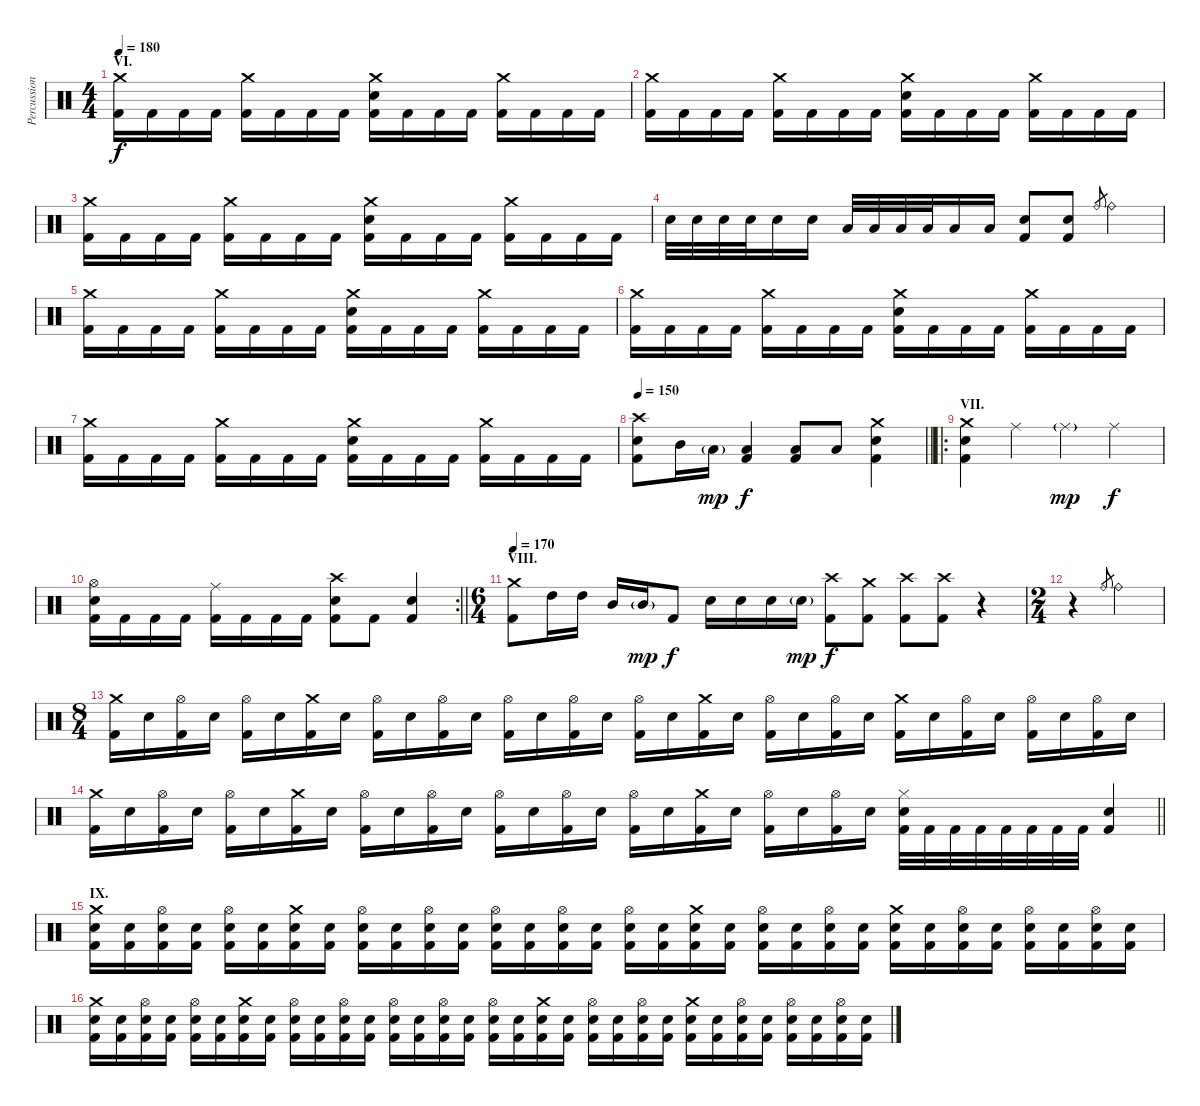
\track ("Percussion" "Percussion") {instrument percussion}
\staff {score}
\articulation defaults
\ts (4 4)
\section ("" "VI.")
\tempo 180
\clef neutral
\ks c
("Crash medium (hit)" "Kick (hit) 2").16{dy f} "Kick (hit) 2".16 "Kick (hit) 2".16 "Kick (hit) 2".16 ("Crash medium (hit)" "Kick (hit) 2").16 "Kick (hit) 2".16 "Kick (hit) 2".16 "Kick (hit) 2".16 ("Crash medium (hit)" "Electric Snare (hit)" "Kick (hit) 2").16 "Kick (hit) 2".16 "Kick (hit) 2".16 "Kick (hit) 2".16 ("Crash medium (hit)" "Kick (hit) 2").16 "Kick (hit) 2".16 "Kick (hit) 2".16 "Kick (hit) 2".16 |
("Crash medium (hit)" "Kick (hit) 2").16 "Kick (hit) 2".16 "Kick (hit) 2".16 "Kick (hit) 2".16 ("Crash medium (hit)" "Kick (hit) 2").16 "Kick (hit) 2".16 "Kick (hit) 2".16 "Kick (hit) 2".16 ("Crash medium (hit)" "Electric Snare (hit)" "Kick (hit) 2").16 "Kick (hit) 2".16 "Kick (hit) 2".16 "Kick (hit) 2".16 ("Crash medium (hit)" "Kick (hit) 2").16 "Kick (hit) 2".16 "Kick (hit) 2".16 "Kick (hit) 2".16 |
("Crash medium (hit)" "Kick (hit) 2").16 "Kick (hit) 2".16 "Kick (hit) 2".16 "Kick (hit) 2".16 ("Crash medium (hit)" "Kick (hit) 2").16 "Kick (hit) 2".16 "Kick (hit) 2".16 "Kick (hit) 2".16 ("Crash medium (hit)" "Electric Snare (hit)" "Kick (hit) 2").16 "Kick (hit) 2".16 "Kick (hit) 2".16 "Kick (hit) 2".16 ("Crash medium (hit)" "Kick (hit) 2").16 "Kick (hit) 2".16 "Kick (hit) 2".16 "Kick (hit) 2".16 |
"Electric Snare (hit)".32 "Electric Snare (hit)".32 "Electric Snare (hit)".32 "Electric Snare (hit)".32 "Electric Snare (hit)".16 "Electric Snare (hit)".16 "Low Floor Tom (hit)".32 "Low Floor Tom (hit)".32 "Low Floor Tom (hit)".32 "Low Floor Tom (hit)".32 "Low Floor Tom (hit)".16 "Low Floor Tom (hit)".16 ("Electric Snare (hit)" "Kick (hit) 2").8 ("Electric Snare (hit)" "Kick (hit) 2").8 "Ride (bell)".8{gr} "Ride (bell)".4 |
("Crash medium (hit)" "Kick (hit) 2").16 "Kick (hit) 2".16 "Kick (hit) 2".16 "Kick (hit) 2".16 ("Crash medium (hit)" "Kick (hit) 2").16 "Kick (hit) 2".16 "Kick (hit) 2".16 "Kick (hit) 2".16 ("Crash medium (hit)" "Electric Snare (hit)" "Kick (hit) 2").16 "Kick (hit) 2".16 "Kick (hit) 2".16 "Kick (hit) 2".16 ("Crash medium (hit)" "Kick (hit) 2").16 "Kick (hit) 2".16 "Kick (hit) 2".16 "Kick (hit) 2".16 |
("Crash medium (hit)" "Kick (hit) 2").16 "Kick (hit) 2".16 "Kick (hit) 2".16 "Kick (hit) 2".16 ("Crash medium (hit)" "Kick (hit) 2").16 "Kick (hit) 2".16 "Kick (hit) 2".16 "Kick (hit) 2".16 ("Crash medium (hit)" "Electric Snare (hit)" "Kick (hit) 2").16 "Kick (hit) 2".16 "Kick (hit) 2".16 "Kick (hit) 2".16 ("Crash medium (hit)" "Kick (hit) 2").16 "Kick (hit) 2".16 "Kick (hit) 2".16 "Kick (hit) 2".16 |
("Crash medium (hit)" "Kick (hit) 2").16 "Kick (hit) 2".16 "Kick (hit) 2".16 "Kick (hit) 2".16 ("Crash medium (hit)" "Kick (hit) 2").16 "Kick (hit) 2".16 "Kick (hit) 2".16 "Kick (hit) 2".16 ("Crash medium (hit)" "Electric Snare (hit)" "Kick (hit) 2").16 "Kick (hit) 2".16 "Kick (hit) 2".16 "Kick (hit) 2".16 ("Crash medium (hit)" "Kick (hit) 2").16 "Kick (hit) 2".16 "Kick (hit) 2".16 "Kick (hit) 2".16 |
\tempo 150
\barLineRight lightlight
("Crash high (hit)" "Electric Snare (hit)" "Kick (hit) 2").8 "Mid Tom (hit)".16 "Low Tom (hit)"{g}.16{dy mp} ("Low Floor Tom (hit)" "Kick (hit) 2").4{dy f} ("Low Floor Tom (hit)" "Kick (hit) 2").8 "Low Tom (hit)".8 ("Crash medium (hit)" "Electric Snare (hit)" "Kick (hit) 2").4 |
\ro
\section ("" "VII.")
("Crash medium (hit)" "Electric Snare (hit)" "Kick (hit) 2").4 "Ride (middle)".4 "Ride (middle)"{g}.4{dy mp} "Ride (middle)".4{dy f} |
\rc 2
\barLineRight lightlight
("Hi-Hat (open)" "Electric Snare (hit)" "Kick (hit) 2").16 "Kick (hit) 2".16 "Kick (hit) 2".16 "Kick (hit) 2".16 ("Ride (middle)" "Kick (hit) 2").16 "Kick (hit) 2".16 "Kick (hit) 2".16 "Kick (hit) 2".16 ("Crash high (hit)" "Electric Snare (hit)" "Kick (hit) 2").8 "Kick (hit) 2".8 ("Electric Snare (hit)" "Kick (hit) 2").4 |
\ts (6 4)
\section ("" "VIII.")
\tempo 170
("Crash medium (hit)" "Kick (hit) 2").8 "High Tom (hit)".16 "High Tom (hit)".16 "Mid Tom (hit)".16 "Mid Tom (hit)"{g}.16{dy mp} "Kick (hit) 2".8{dy f} "Electric Snare (hit)".16 "Electric Snare (hit)".16 "Electric Snare (hit)".16 "Electric Snare (hit)"{g}.16{dy mp} ("Crash high (hit)" "Kick (hit) 2").8{dy f} ("Crash medium (hit)" "Kick (hit) 2").8 ("Crash high (hit)" "Kick (hit) 2").8 ("Crash high (hit)" "Kick (hit) 2").8 r.4 |
\ts (2 4)
r.4 "Ride (bell)".8{gr} "Ride (bell)".4 |
\ts (8 4)
("Crash medium (hit)" "Kick (hit) 2").16 "Electric Snare (hit)".16 ("Hi-Hat (open)" "Kick (hit) 2").16 "Electric Snare (hit)".16 ("Hi-Hat (open)" "Kick (hit) 2").16 "Electric Snare (hit)".16 ("Crash medium (hit)" "Kick (hit) 2").16 "Electric Snare (hit)".16 ("Hi-Hat (open)" "Kick (hit) 2").16 "Electric Snare (hit)".16 ("Hi-Hat (open)" "Kick (hit) 2").16 "Electric Snare (hit)".16 ("Hi-Hat (open)" "Kick (hit) 2").16 "Electric Snare (hit)".16 ("Hi-Hat (open)" "Kick (hit) 2").16 "Electric Snare (hit)".16 ("Hi-Hat (open)" "Kick (hit) 2").16 "Electric Snare (hit)".16 ("Crash medium (hit)" "Kick (hit) 2").16 "Electric Snare (hit)".16 ("Hi-Hat (open)" "Kick (hit) 2").16 "Electric Snare (hit)".16 ("Hi-Hat (open)" "Kick (hit) 2").16 "Electric Snare (hit)".16 ("Crash medium (hit)" "Kick (hit) 2").16 "Electric Snare (hit)".16 ("Hi-Hat (open)" "Kick (hit) 2").16 "Electric Snare (hit)".16 ("Hi-Hat (open)" "Kick (hit) 2").16 "Electric Snare (hit)".16 ("Hi-Hat (open)" "Kick (hit) 2").16 "Electric Snare (hit)".16 |
\barLineRight lightlight
("Crash medium (hit)" "Kick (hit) 2").16 "Electric Snare (hit)".16 ("Hi-Hat (open)" "Kick (hit) 2").16 "Electric Snare (hit)".16 ("Hi-Hat (open)" "Kick (hit) 2").16 "Electric Snare (hit)".16 ("Crash medium (hit)" "Kick (hit) 2").16 "Electric Snare (hit)".16 ("Hi-Hat (open)" "Kick (hit) 2").16 "Electric Snare (hit)".16 ("Hi-Hat (open)" "Kick (hit) 2").16 "Electric Snare (hit)".16 ("Hi-Hat (open)" "Kick (hit) 2").16 "Electric Snare (hit)".16 ("Hi-Hat (open)" "Kick (hit) 2").16 "Electric Snare (hit)".16 ("Hi-Hat (open)" "Kick (hit) 2").16 "Electric Snare (hit)".16 ("Crash medium (hit)" "Kick (hit) 2").16 "Electric Snare (hit)".16 ("Hi-Hat (open)" "Kick (hit) 2").16 "Electric Snare (hit)".16 ("Hi-Hat (open)" "Kick (hit) 2").16 "Electric Snare (hit)".16 ("Hi-Hat (closed)" "Electric Snare (hit)" "Kick (hit) 2").32 "Kick (hit) 2".32 "Kick (hit) 2".32 "Kick (hit) 2".32 "Kick (hit) 2".32 "Kick (hit) 2".32 "Kick (hit) 2".32 "Kick (hit) 2".32 ("Electric Snare (hit)" "Kick (hit) 2").4 |
\section ("" "IX.")
("Crash medium (hit)" "Electric Snare (hit)" "Kick (hit) 2").16 ("Electric Snare (hit)" "Kick (hit) 2").16 ("Hi-Hat (open)" "Electric Snare (hit)" "Kick (hit) 2").16 ("Electric Snare (hit)" "Kick (hit) 2").16 ("Hi-Hat (open)" "Electric Snare (hit)" "Kick (hit) 2").16 ("Electric Snare (hit)" "Kick (hit) 2").16 ("Crash medium (hit)" "Electric Snare (hit)" "Kick (hit) 2").16 ("Electric Snare (hit)" "Kick (hit) 2").16 ("Hi-Hat (open)" "Electric Snare (hit)" "Kick (hit) 2").16 ("Electric Snare (hit)" "Kick (hit) 2").16 ("Hi-Hat (open)" "Electric Snare (hit)" "Kick (hit) 2").16 ("Electric Snare (hit)" "Kick (hit) 2").16 ("Hi-Hat (open)" "Electric Snare (hit)" "Kick (hit) 2").16 ("Electric Snare (hit)" "Kick (hit) 2").16 ("Hi-Hat (open)" "Electric Snare (hit)" "Kick (hit) 2").16 ("Electric Snare (hit)" "Kick (hit) 2").16 ("Hi-Hat (open)" "Electric Snare (hit)" "Kick (hit) 2").16 ("Electric Snare (hit)" "Kick (hit) 2").16 ("Crash medium (hit)" "Electric Snare (hit)" "Kick (hit) 2").16 ("Electric Snare (hit)" "Kick (hit) 2").16 ("Hi-Hat (open)" "Electric Snare (hit)" "Kick (hit) 2").16 ("Electric Snare (hit)" "Kick (hit) 2").16 ("Hi-Hat (open)" "Electric Snare (hit)" "Kick (hit) 2").16 ("Electric Snare (hit)" "Kick (hit) 2").16 ("Crash medium (hit)" "Electric Snare (hit)" "Kick (hit) 2").16 ("Electric Snare (hit)" "Kick (hit) 2").16 ("Hi-Hat (open)" "Electric Snare (hit)" "Kick (hit) 2").16 ("Electric Snare (hit)" "Kick (hit) 2").16 ("Hi-Hat (open)" "Electric Snare (hit)" "Kick (hit) 2").16 ("Electric Snare (hit)" "Kick (hit) 2").16 ("Hi-Hat (open)" "Electric Snare (hit)" "Kick (hit) 2").16 ("Electric Snare (hit)" "Kick (hit) 2").16 |
("Crash medium (hit)" "Electric Snare (hit)" "Kick (hit) 2").16 ("Electric Snare (hit)" "Kick (hit) 2").16 ("Hi-Hat (open)" "Electric Snare (hit)" "Kick (hit) 2").16 ("Electric Snare (hit)" "Kick (hit) 2").16 ("Hi-Hat (open)" "Electric Snare (hit)" "Kick (hit) 2").16 ("Electric Snare (hit)" "Kick (hit) 2").16 ("Crash medium (hit)" "Electric Snare (hit)" "Kick (hit) 2").16 ("Electric Snare (hit)" "Kick (hit) 2").16 ("Hi-Hat (open)" "Electric Snare (hit)" "Kick (hit) 2").16 ("Electric Snare (hit)" "Kick (hit) 2").16 ("Hi-Hat (open)" "Electric Snare (hit)" "Kick (hit) 2").16 ("Electric Snare (hit)" "Kick (hit) 2").16 ("Hi-Hat (open)" "Electric Snare (hit)" "Kick (hit) 2").16 ("Electric Snare (hit)" "Kick (hit) 2").16 ("Hi-Hat (open)" "Electric Snare (hit)" "Kick (hit) 2").16 ("Electric Snare (hit)" "Kick (hit) 2").16 ("Hi-Hat (open)" "Electric Snare (hit)" "Kick (hit) 2").16 ("Electric Snare (hit)" "Kick (hit) 2").16 ("Crash medium (hit)" "Electric Snare (hit)" "Kick (hit) 2").16 ("Electric Snare (hit)" "Kick (hit) 2").16 ("Hi-Hat (open)" "Electric Snare (hit)" "Kick (hit) 2").16 ("Electric Snare (hit)" "Kick (hit) 2").16 ("Hi-Hat (open)" "Electric Snare (hit)" "Kick (hit) 2").16 ("Electric Snare (hit)" "Kick (hit) 2").16 ("Crash medium (hit)" "Electric Snare (hit)" "Kick (hit) 2").16 ("Electric Snare (hit)" "Kick (hit) 2").16 ("Hi-Hat (open)" "Electric Snare (hit)" "Kick (hit) 2").16 ("Electric Snare (hit)" "Kick (hit) 2").16 ("Hi-Hat (open)" "Electric Snare (hit)" "Kick (hit) 2").16 ("Electric Snare (hit)" "Kick (hit) 2").16 ("Hi-Hat (open)" "Electric Snare (hit)" "Kick (hit) 2").16 ("Electric Snare (hit)" "Kick (hit) 2").16
